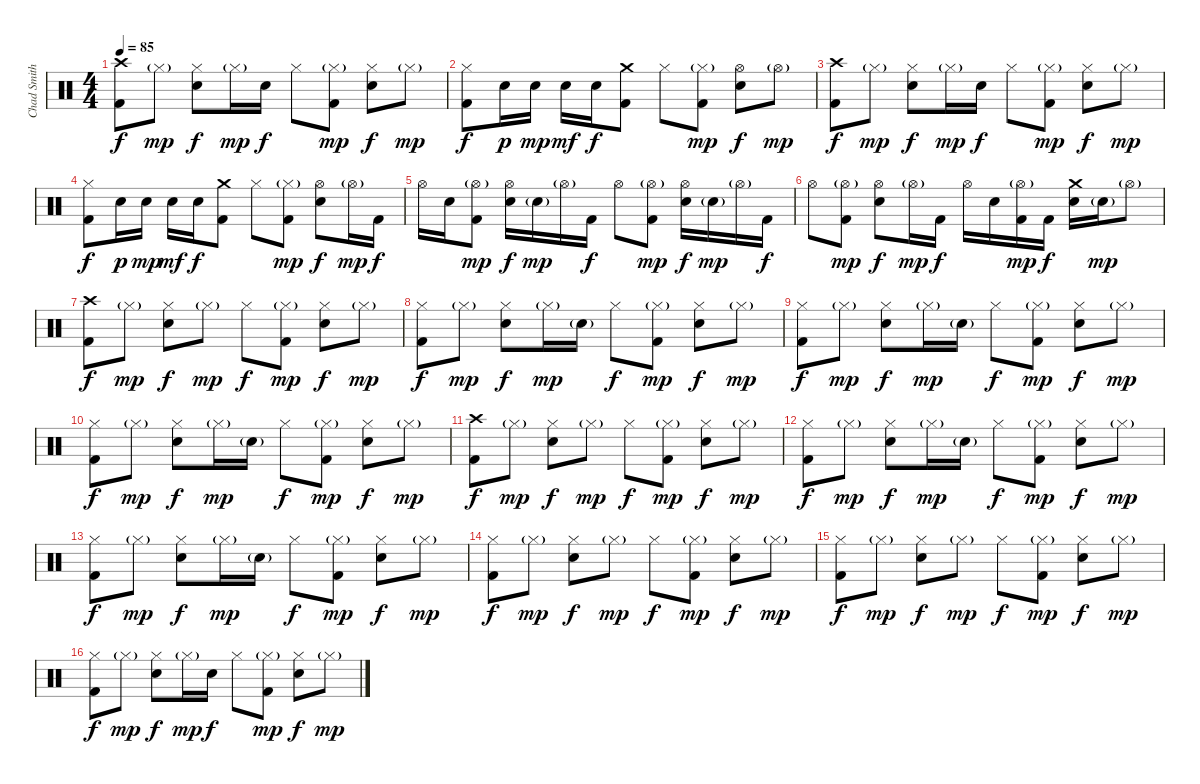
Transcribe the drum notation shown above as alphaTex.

\track ("Chad Smith" "Chad Smith") {instrument percussion}
\staff {score}
\articulation defaults
\ts (4 4)
\tempo 85
\clef neutral
\ks c
("Crash high (hit)" "Kick (hit) 2").8{dy f} "Hi-Hat (closed)"{g}.8{dy mp} ("Hi-Hat (closed)" "Electric Snare (hit)").8{dy f} "Hi-Hat (closed)"{g}.16{dy mp} "Electric Snare (hit)".16{dy f} "Hi-Hat (closed)".8 ("Hi-Hat (closed)"{g} "Kick (hit) 2").8{dy mp} ("Hi-Hat (closed)" "Electric Snare (hit)").8{dy f} "Hi-Hat (closed)"{g}.8{dy mp} |
("Hi-Hat (closed)" "Kick (hit) 2").8{dy f} "Electric Snare (hit)".16{dy p} "Electric Snare (hit)".16{dy mp} "Electric Snare (hit)".16{dy mf} "Electric Snare (hit)".16{dy f} ("Crash medium (hit)" "Kick (hit) 2").8 "Hi-Hat (closed)".8 ("Hi-Hat (closed)"{g} "Kick (hit) 2").8{dy mp} ("Hi-Hat (open)" "Electric Snare (hit)").8{dy f} "Hi-Hat (open)"{g}.8{dy mp} |
("Crash high (hit)" "Kick (hit) 2").8{dy f} "Hi-Hat (closed)"{g}.8{dy mp} ("Hi-Hat (closed)" "Electric Snare (hit)").8{dy f} "Hi-Hat (closed)"{g}.16{dy mp} "Electric Snare (hit)".16{dy f} "Hi-Hat (closed)".8 ("Hi-Hat (closed)"{g} "Kick (hit) 2").8{dy mp} ("Hi-Hat (closed)" "Electric Snare (hit)").8{dy f} "Hi-Hat (closed)"{g}.8{dy mp} |
("Hi-Hat (closed)" "Kick (hit) 2").8{dy f} "Electric Snare (hit)".16{dy p} "Electric Snare (hit)".16{dy mp} "Electric Snare (hit)".16{dy mf} "Electric Snare (hit)".16{dy f} ("Crash medium (hit)" "Kick (hit) 2").8 "Hi-Hat (closed)".8 ("Hi-Hat (closed)"{g} "Kick (hit) 2").8{dy mp} ("Hi-Hat (open)" "Electric Snare (hit)").8{dy f} "Hi-Hat (open)"{g}.16{dy mp} "Kick (hit) 2".16{dy f} |
"Hi-Hat (open)".16 "Electric Snare (hit)".16 ("Hi-Hat (open)"{g} "Kick (hit) 2").8{dy mp} ("Hi-Hat (open)" "Electric Snare (hit)").16{dy f} "Electric Snare (hit)"{g}.16{dy mp} "Hi-Hat (open)"{g}.16 "Kick (hit) 2".16{dy f} "Hi-Hat (open)".8 ("Hi-Hat (open)"{g} "Kick (hit) 2").8{dy mp} ("Hi-Hat (open)" "Electric Snare (hit)").16{dy f} "Electric Snare (hit)"{g}.16{dy mp} "Hi-Hat (open)"{g}.16 "Kick (hit) 2".16{dy f} |
"Hi-Hat (open)".8 ("Hi-Hat (open)"{g} "Kick (hit) 2").8{dy mp} ("Hi-Hat (open)" "Electric Snare (hit)").8{dy f} "Hi-Hat (open)"{g}.16{dy mp} "Kick (hit) 2".16{dy f} "Hi-Hat (open)".16 "Electric Snare (hit)".16 ("Hi-Hat (open)"{g} "Kick (hit) 2").16{dy mp} "Kick (hit) 2".16{dy f} ("Crash medium (hit)" "Electric Snare (hit)").16 "Electric Snare (hit)"{g}.16{dy mp} "Hi-Hat (open)"{g}.8 |
("Crash high (hit)" "Kick (hit) 2").8{dy f} "Hi-Hat (closed)"{g}.8{dy mp} ("Hi-Hat (closed)" "Electric Snare (hit)").8{dy f} "Hi-Hat (closed)"{g}.8{dy mp} "Hi-Hat (closed)".8{dy f} ("Hi-Hat (closed)"{g} "Kick (hit) 2").8{dy mp} ("Hi-Hat (closed)" "Electric Snare (hit)").8{dy f} "Hi-Hat (closed)"{g}.8{dy mp} |
("Hi-Hat (closed)" "Kick (hit) 2").8{dy f} "Hi-Hat (closed)"{g}.8{dy mp} ("Hi-Hat (closed)" "Electric Snare (hit)").8{dy f} "Hi-Hat (closed)"{g}.16{dy mp} "Electric Snare (hit)"{g}.16 "Hi-Hat (closed)".8{dy f} ("Hi-Hat (closed)"{g} "Kick (hit) 2").8{dy mp} ("Hi-Hat (closed)" "Electric Snare (hit)").8{dy f} "Hi-Hat (closed)"{g}.8{dy mp} |
("Hi-Hat (closed)" "Kick (hit) 2").8{dy f} "Hi-Hat (closed)"{g}.8{dy mp} ("Hi-Hat (closed)" "Electric Snare (hit)").8{dy f} "Hi-Hat (closed)"{g}.16{dy mp} "Electric Snare (hit)"{g}.16 "Hi-Hat (closed)".8{dy f} ("Hi-Hat (closed)"{g} "Kick (hit) 2").8{dy mp} ("Hi-Hat (closed)" "Electric Snare (hit)").8{dy f} "Hi-Hat (closed)"{g}.8{dy mp} |
("Hi-Hat (closed)" "Kick (hit) 2").8{dy f} "Hi-Hat (closed)"{g}.8{dy mp} ("Hi-Hat (closed)" "Electric Snare (hit)").8{dy f} "Hi-Hat (closed)"{g}.16{dy mp} "Electric Snare (hit)"{g}.16 "Hi-Hat (closed)".8{dy f} ("Hi-Hat (closed)"{g} "Kick (hit) 2").8{dy mp} ("Hi-Hat (closed)" "Electric Snare (hit)").8{dy f} "Hi-Hat (closed)"{g}.8{dy mp} |
("Crash high (hit)" "Kick (hit) 2").8{dy f} "Hi-Hat (closed)"{g}.8{dy mp} ("Hi-Hat (closed)" "Electric Snare (hit)").8{dy f} "Hi-Hat (closed)"{g}.8{dy mp} "Hi-Hat (closed)".8{dy f} ("Hi-Hat (closed)"{g} "Kick (hit) 2").8{dy mp} ("Hi-Hat (closed)" "Electric Snare (hit)").8{dy f} "Hi-Hat (closed)"{g}.8{dy mp} |
("Hi-Hat (closed)" "Kick (hit) 2").8{dy f} "Hi-Hat (closed)"{g}.8{dy mp} ("Hi-Hat (closed)" "Electric Snare (hit)").8{dy f} "Hi-Hat (closed)"{g}.16{dy mp} "Electric Snare (hit)"{g}.16 "Hi-Hat (closed)".8{dy f} ("Hi-Hat (closed)"{g} "Kick (hit) 2").8{dy mp} ("Hi-Hat (closed)" "Electric Snare (hit)").8{dy f} "Hi-Hat (closed)"{g}.8{dy mp} |
("Hi-Hat (closed)" "Kick (hit) 2").8{dy f} "Hi-Hat (closed)"{g}.8{dy mp} ("Hi-Hat (closed)" "Electric Snare (hit)").8{dy f} "Hi-Hat (closed)"{g}.16{dy mp} "Electric Snare (hit)"{g}.16 "Hi-Hat (closed)".8{dy f} ("Hi-Hat (closed)"{g} "Kick (hit) 2").8{dy mp} ("Hi-Hat (closed)" "Electric Snare (hit)").8{dy f} "Hi-Hat (closed)"{g}.8{dy mp} |
("Hi-Hat (closed)" "Kick (hit) 2").8{dy f} "Hi-Hat (closed)"{g}.8{dy mp} ("Hi-Hat (closed)" "Electric Snare (hit)").8{dy f} "Hi-Hat (closed)"{g}.8{dy mp} "Hi-Hat (closed)".8{dy f} ("Hi-Hat (closed)"{g} "Kick (hit) 2").8{dy mp} ("Hi-Hat (closed)" "Electric Snare (hit)").8{dy f} "Hi-Hat (closed)"{g}.8{dy mp} |
("Hi-Hat (closed)" "Kick (hit) 2").8{dy f} "Hi-Hat (closed)"{g}.8{dy mp} ("Hi-Hat (closed)" "Electric Snare (hit)").8{dy f} "Hi-Hat (closed)"{g}.8{dy mp} "Hi-Hat (closed)".8{dy f} ("Hi-Hat (closed)"{g} "Kick (hit) 2").8{dy mp} ("Hi-Hat (closed)" "Electric Snare (hit)").8{dy f} "Hi-Hat (closed)"{g}.8{dy mp} |
("Hi-Hat (closed)" "Kick (hit) 2").8{dy f} "Hi-Hat (closed)"{g}.8{dy mp} ("Hi-Hat (closed)" "Electric Snare (hit)").8{dy f} "Hi-Hat (closed)"{g}.16{dy mp} "Electric Snare (hit)".16{dy f} "Hi-Hat (closed)".8 ("Hi-Hat (closed)"{g} "Kick (hit) 2").8{dy mp} ("Hi-Hat (closed)" "Electric Snare (hit)").8{dy f} "Hi-Hat (closed)"{g}.8{dy mp}
